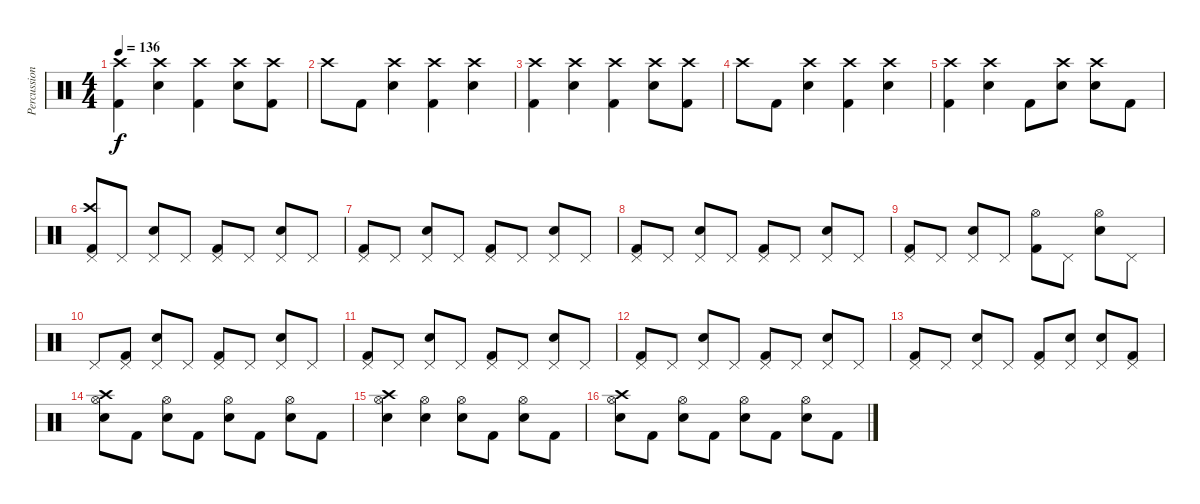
\track ("Percussion" "Percussion") {instrument percussion}
\staff {score}
\articulation defaults
\ts (4 4)
\tempo 136
\clef neutral
\ks c
("Kick (hit) 2" "Crash high (hit)").4{dy f} ("Snare (hit) 2" "Crash high (hit)").4 ("Kick (hit) 2" "Crash high (hit)").4 ("Snare (hit) 2" "Crash high (hit)").8 ("Kick (hit) 2" "Crash high (hit)").8 |
"Crash high (hit)".8 "Kick (hit) 2".8 ("Snare (hit) 2" "Crash high (hit)").4 ("Kick (hit) 2" "Crash high (hit)").4 ("Snare (hit) 2" "Crash high (hit)").4 |
("Kick (hit) 2" "Crash high (hit)").4 ("Snare (hit) 2" "Crash high (hit)").4 ("Kick (hit) 2" "Crash high (hit)").4 ("Snare (hit) 2" "Crash high (hit)").8 ("Kick (hit) 2" "Crash high (hit)").8 |
"Crash high (hit)".8 "Kick (hit) 2".8 ("Snare (hit) 2" "Crash high (hit)").4 ("Kick (hit) 2" "Crash high (hit)").4 ("Snare (hit) 2" "Crash high (hit)").4 |
("Kick (hit) 2" "Crash high (hit)").4 ("Snare (hit) 2" "Crash high (hit)").4 "Kick (hit) 2".8 ("Snare (hit) 2" "Crash high (hit)").8 ("Snare (hit) 2" "Crash high (hit)").8 "Kick (hit) 2".8 |
("Kick (hit) 2" "Pedal Hi-Hat (hit)" "Crash high (hit)").8 "Pedal Hi-Hat (hit)".8 ("Snare (hit) 2" "Pedal Hi-Hat (hit)").8 "Pedal Hi-Hat (hit)".8 ("Kick (hit) 2" "Pedal Hi-Hat (hit)").8 "Pedal Hi-Hat (hit)".8 ("Snare (hit) 2" "Pedal Hi-Hat (hit)").8 "Pedal Hi-Hat (hit)".8 |
("Kick (hit) 2" "Pedal Hi-Hat (hit)").8 "Pedal Hi-Hat (hit)".8 ("Snare (hit) 2" "Pedal Hi-Hat (hit)").8 "Pedal Hi-Hat (hit)".8 ("Kick (hit) 2" "Pedal Hi-Hat (hit)").8 "Pedal Hi-Hat (hit)".8 ("Snare (hit) 2" "Pedal Hi-Hat (hit)").8 "Pedal Hi-Hat (hit)".8 |
("Kick (hit) 2" "Pedal Hi-Hat (hit)").8 "Pedal Hi-Hat (hit)".8 ("Snare (hit) 2" "Pedal Hi-Hat (hit)").8 "Pedal Hi-Hat (hit)".8 ("Kick (hit) 2" "Pedal Hi-Hat (hit)").8 "Pedal Hi-Hat (hit)".8 ("Snare (hit) 2" "Pedal Hi-Hat (hit)").8 "Pedal Hi-Hat (hit)".8 |
("Kick (hit) 2" "Pedal Hi-Hat (hit)").8 "Pedal Hi-Hat (hit)".8 ("Snare (hit) 2" "Pedal Hi-Hat (hit)").8 "Pedal Hi-Hat (hit)".8 ("Kick (hit) 2" "Hi-Hat (open)").8 "Pedal Hi-Hat (hit)".8 ("Snare (hit) 2" "Hi-Hat (open)").8 "Pedal Hi-Hat (hit)".8 |
"Pedal Hi-Hat (hit)".8 ("Kick (hit) 2" "Pedal Hi-Hat (hit)").8 ("Snare (hit) 2" "Pedal Hi-Hat (hit)").8 "Pedal Hi-Hat (hit)".8 ("Kick (hit) 2" "Pedal Hi-Hat (hit)").8 "Pedal Hi-Hat (hit)".8 ("Snare (hit) 2" "Pedal Hi-Hat (hit)").8 "Pedal Hi-Hat (hit)".8 |
("Kick (hit) 2" "Pedal Hi-Hat (hit)").8 "Pedal Hi-Hat (hit)".8 ("Snare (hit) 2" "Pedal Hi-Hat (hit)").8 "Pedal Hi-Hat (hit)".8 ("Kick (hit) 2" "Pedal Hi-Hat (hit)").8 "Pedal Hi-Hat (hit)".8 ("Snare (hit) 2" "Pedal Hi-Hat (hit)").8 "Pedal Hi-Hat (hit)".8 |
("Kick (hit) 2" "Pedal Hi-Hat (hit)").8 "Pedal Hi-Hat (hit)".8 ("Snare (hit) 2" "Pedal Hi-Hat (hit)").8 "Pedal Hi-Hat (hit)".8 ("Kick (hit) 2" "Pedal Hi-Hat (hit)").8 "Pedal Hi-Hat (hit)".8 ("Snare (hit) 2" "Pedal Hi-Hat (hit)").8 "Pedal Hi-Hat (hit)".8 |
("Kick (hit) 2" "Pedal Hi-Hat (hit)").8 "Pedal Hi-Hat (hit)".8 ("Snare (hit) 2" "Pedal Hi-Hat (hit)").8 "Pedal Hi-Hat (hit)".8 ("Kick (hit) 2" "Pedal Hi-Hat (hit)").8 ("Snare (hit) 2" "Pedal Hi-Hat (hit)").8 ("Snare (hit) 2" "Pedal Hi-Hat (hit)").8 ("Kick (hit) 2" "Pedal Hi-Hat (hit)").8 |
("Snare (hit) 2" "Hi-Hat (open)" "Crash high (hit)").8 "Kick (hit) 2".8 ("Snare (hit) 2" "Hi-Hat (open)").8 "Kick (hit) 2".8 ("Snare (hit) 2" "Hi-Hat (open)").8 "Kick (hit) 2".8 ("Snare (hit) 2" "Hi-Hat (open)").8 "Kick (hit) 2".8 |
("Snare (hit) 2" "Hi-Hat (open)" "Crash high (hit)").4 ("Snare (hit) 2" "Hi-Hat (open)").4 ("Snare (hit) 2" "Hi-Hat (open)").8 "Kick (hit) 2".8 ("Snare (hit) 2" "Hi-Hat (open)").8 "Kick (hit) 2".8 |
("Snare (hit) 2" "Hi-Hat (open)" "Crash high (hit)").8 "Kick (hit) 2".8 ("Snare (hit) 2" "Hi-Hat (open)").8 "Kick (hit) 2".8 ("Snare (hit) 2" "Hi-Hat (open)").8 "Kick (hit) 2".8 ("Snare (hit) 2" "Hi-Hat (open)").8 "Kick (hit) 2".8
